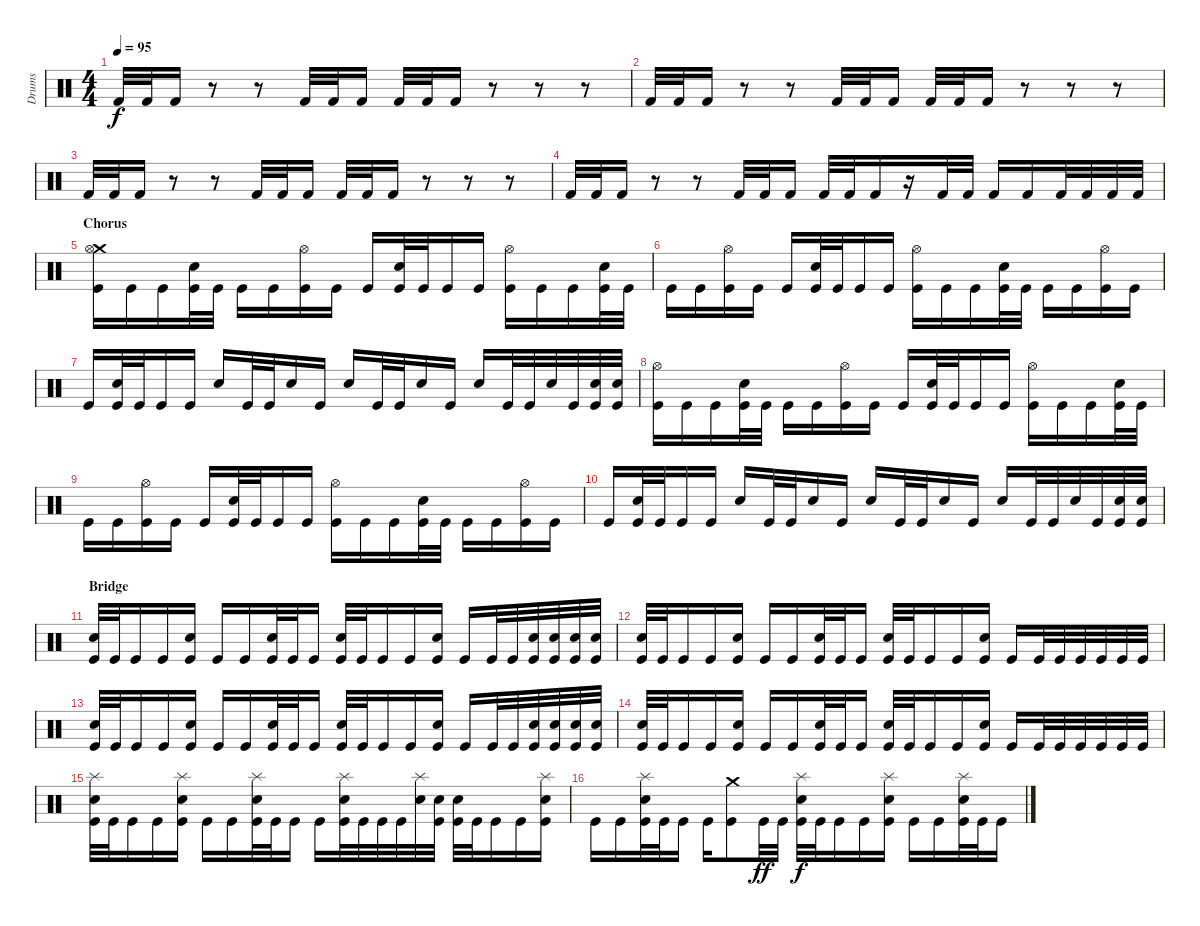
\track ("Drums" "Drums") {instrument percussion}
\staff {score}
\articulation defaults
\ts (4 4)
\tempo 95
\clef neutral
\ks c "Kick (hit) 2".32{dy f} "Kick (hit) 2".32 "Kick (hit) 2".16
r.8 r.8 "Kick (hit) 2".32 "Kick (hit) 2".32 "Kick (hit) 2".16 "Kick (hit) 2".32 "Kick (hit) 2".32 "Kick (hit) 2".16 r.8 r.8 r.8 |
"Kick (hit) 2".32 "Kick (hit) 2".32 "Kick (hit) 2".16 r.8 r.8 "Kick (hit) 2".32 "Kick (hit) 2".32 "Kick (hit) 2".16 "Kick (hit) 2".32 "Kick (hit) 2".32 "Kick (hit) 2".16 r.8 r.8 r.8 |
"Kick (hit) 2".32 "Kick (hit) 2".32 "Kick (hit) 2".16 r.8 r.8 "Kick (hit) 2".32 "Kick (hit) 2".32 "Kick (hit) 2".16 "Kick (hit) 2".32 "Kick (hit) 2".32 "Kick (hit) 2".16 r.8 r.8 r.8 |
"Kick (hit) 2".32 "Kick (hit) 2".32 "Kick (hit) 2".16 r.8 r.8 "Kick (hit) 2".32 "Kick (hit) 2".32 "Kick (hit) 2".16 "Kick (hit) 2".32 "Kick (hit) 2".32 "Kick (hit) 2".16 r.16 "Kick (hit) 2".32 "Kick (hit) 2".32 "Kick (hit) 2".16 "Kick (hit) 2".16 "Kick (hit) 2".32 "Kick (hit) 2".32 "Kick (hit) 2".32 "Kick (hit) 2".32 |
\section ("" "Chorus")
("Crash medium (hit)" "Hi-Hat (open)" "Kick (hit)").16 "Kick (hit)".16 "Kick (hit)".16 ("Electric Snare (hit)" "Kick (hit)").32 "Kick (hit)".32 "Kick (hit)".16 "Kick (hit)".16 ("Hi-Hat (open)" "Kick (hit)").16 "Kick (hit)".16 "Kick (hit)".16 ("Electric Snare (hit)" "Kick (hit)").32 "Kick (hit)".32 "Kick (hit)".16 "Kick (hit)".16 ("Hi-Hat (open)" "Kick (hit)").16 "Kick (hit)".16 "Kick (hit)".16 ("Electric Snare (hit)" "Kick (hit)").32 "Kick (hit)".32 |
"Kick (hit)".16 "Kick (hit)".16 ("Hi-Hat (open)" "Kick (hit)").16 "Kick (hit)".16 "Kick (hit)".16 ("Electric Snare (hit)" "Kick (hit)").32 "Kick (hit)".32 "Kick (hit)".16 "Kick (hit)".16 ("Hi-Hat (open)" "Kick (hit)").16 "Kick (hit)".16 "Kick (hit)".16 ("Electric Snare (hit)" "Kick (hit)").32 "Kick (hit)".32 "Kick (hit)".16 "Kick (hit)".16 ("Hi-Hat (open)" "Kick (hit)").16 "Kick (hit)".16 |
"Kick (hit)".16 ("Electric Snare (hit)" "Kick (hit)").32 "Kick (hit)".32 "Kick (hit)".16 "Kick (hit)".16 "Electric Snare (hit)".16 "Kick (hit)".32 "Kick (hit)".32 "Electric Snare (hit)".16 "Kick (hit)".16 "Electric Snare (hit)".16 "Kick (hit)".32 "Kick (hit)".32 "Electric Snare (hit)".16 "Kick (hit)".16 "Electric Snare (hit)".16 "Kick (hit)".32 "Kick (hit)".32 "Electric Snare (hit)".32 "Kick (hit)".32 ("Electric Snare (hit)" "Kick (hit)").32 ("Electric Snare (hit)" "Kick (hit)").32 |
("Hi-Hat (open)" "Kick (hit)").16 "Kick (hit)".16 "Kick (hit)".16 ("Electric Snare (hit)" "Kick (hit)").32 "Kick (hit)".32 "Kick (hit)".16 "Kick (hit)".16 ("Hi-Hat (open)" "Kick (hit)").16 "Kick (hit)".16 "Kick (hit)".16 ("Electric Snare (hit)" "Kick (hit)").32 "Kick (hit)".32 "Kick (hit)".16 "Kick (hit)".16 ("Hi-Hat (open)" "Kick (hit)").16 "Kick (hit)".16 "Kick (hit)".16 ("Electric Snare (hit)" "Kick (hit)").32 "Kick (hit)".32 |
"Kick (hit)".16 "Kick (hit)".16 ("Hi-Hat (open)" "Kick (hit)").16 "Kick (hit)".16 "Kick (hit)".16 ("Electric Snare (hit)" "Kick (hit)").32 "Kick (hit)".32 "Kick (hit)".16 "Kick (hit)".16 ("Hi-Hat (open)" "Kick (hit)").16 "Kick (hit)".16 "Kick (hit)".16 ("Electric Snare (hit)" "Kick (hit)").32 "Kick (hit)".32 "Kick (hit)".16 "Kick (hit)".16 ("Hi-Hat (open)" "Kick (hit)").16 "Kick (hit)".16 |
"Kick (hit)".16 ("Electric Snare (hit)" "Kick (hit)").32 "Kick (hit)".32 "Kick (hit)".16 "Kick (hit)".16 "Electric Snare (hit)".16 "Kick (hit)".32 "Kick (hit)".32 "Electric Snare (hit)".16 "Kick (hit)".16 "Electric Snare (hit)".16 "Kick (hit)".32 "Kick (hit)".32 "Electric Snare (hit)".16 "Kick (hit)".16 "Electric Snare (hit)".16 "Kick (hit)".32 "Kick (hit)".32 "Electric Snare (hit)".32 "Kick (hit)".32 ("Electric Snare (hit)" "Kick (hit)").32 ("Electric Snare (hit)" "Kick (hit)").32 |
\section ("" "Bridge")
("Electric Snare (hit)" "Kick (hit)").32 "Kick (hit)".32 "Kick (hit)".16 "Kick (hit)".16 ("Electric Snare (hit)" "Kick (hit)").16 "Kick (hit)".16 "Kick (hit)".16 ("Electric Snare (hit)" "Kick (hit)").32 "Kick (hit)".32 "Kick (hit)".16 ("Electric Snare (hit)" "Kick (hit)").32 "Kick (hit)".32 "Kick (hit)".16 "Kick (hit)".16 ("Electric Snare (hit)" "Kick (hit)").16 "Kick (hit)".16 "Kick (hit)".32 "Kick (hit)".32 ("Electric Snare (hit)" "Kick (hit)").32 ("Electric Snare (hit)" "Kick (hit)").32 ("Electric Snare (hit)" "Kick (hit)").32 ("Electric Snare (hit)" "Kick (hit)").32 |
("Electric Snare (hit)" "Kick (hit)").32 "Kick (hit)".32 "Kick (hit)".16 "Kick (hit)".16 ("Electric Snare (hit)" "Kick (hit)").16 "Kick (hit)".16 "Kick (hit)".16 ("Electric Snare (hit)" "Kick (hit)").32 "Kick (hit)".32 "Kick (hit)".16 ("Electric Snare (hit)" "Kick (hit)").32 "Kick (hit)".32 "Kick (hit)".16 "Kick (hit)".16 ("Electric Snare (hit)" "Kick (hit)").16 "Kick (hit)".16 "Kick (hit)".32 "Kick (hit)".32 "Kick (hit)".32 "Kick (hit)".32 "Kick (hit)".32 "Kick (hit)".32 |
("Electric Snare (hit)" "Kick (hit)").32 "Kick (hit)".32 "Kick (hit)".16 "Kick (hit)".16 ("Electric Snare (hit)" "Kick (hit)").16 "Kick (hit)".16 "Kick (hit)".16 ("Electric Snare (hit)" "Kick (hit)").32 "Kick (hit)".32 "Kick (hit)".16 ("Electric Snare (hit)" "Kick (hit)").32 "Kick (hit)".32 "Kick (hit)".16 "Kick (hit)".16 ("Electric Snare (hit)" "Kick (hit)").16 "Kick (hit)".16 "Kick (hit)".32 "Kick (hit)".32 ("Electric Snare (hit)" "Kick (hit)").32 ("Electric Snare (hit)" "Kick (hit)").32 ("Electric Snare (hit)" "Kick (hit)").32 ("Electric Snare (hit)" "Kick (hit)").32 |
("Electric Snare (hit)" "Kick (hit)").32 "Kick (hit)".32 "Kick (hit)".16 "Kick (hit)".16 ("Electric Snare (hit)" "Kick (hit)").16 "Kick (hit)".16 "Kick (hit)".16 ("Electric Snare (hit)" "Kick (hit)").32 "Kick (hit)".32 "Kick (hit)".16 ("Electric Snare (hit)" "Kick (hit)").32 "Kick (hit)".32 "Kick (hit)".16 "Kick (hit)".16 ("Electric Snare (hit)" "Kick (hit)").16 "Kick (hit)".16 "Kick (hit)".32 "Kick (hit)".32 "Kick (hit)".32 "Kick (hit)".32 "Kick (hit)".32 "Kick (hit)".32 |
("Splash (hit)" "Electric Snare (hit)" "Kick (hit)").32 "Kick (hit)".32 "Kick (hit)".16 "Kick (hit)".16 ("Splash (hit)" "Electric Snare (hit)" "Kick (hit)").16 "Kick (hit)".16 "Kick (hit)".16 ("Splash (hit)" "Electric Snare (hit)" "Kick (hit)").32 "Kick (hit)".32 "Kick (hit)".16 "Kick (hit)".16 ("Splash (hit)" "Electric Snare (hit)" "Kick (hit)").32 "Kick (hit)".32 "Kick (hit)".32 "Kick (hit)".32 ("Splash (hit)" "Electric Snare (hit)").32 ("Electric Snare (hit)" "Kick (hit)").32 ("Electric Snare (hit)" "Kick (hit)").32 "Kick (hit)".32 "Kick (hit)".16 "Kick (hit)".16 ("Splash (hit)" "Electric Snare (hit)" "Kick (hit)").16 |
"Kick (hit)".16 "Kick (hit)".16 ("Splash (hit)" "Electric Snare (hit)" "Kick (hit)").32 "Kick (hit)".32 "Kick (hit)".16 "Kick (hit)".16 ("Crash medium (hit)" "Kick (hit)").8 "Kick (hit)".32{dy ff} "Kick (hit)".32 ("Splash (hit)" "Electric Snare (hit)" "Kick (hit)").32{dy f} "Kick (hit)".32 "Kick (hit)".16 "Kick (hit)".16 ("Splash (hit)" "Electric Snare (hit)" "Kick (hit)").16 "Kick (hit)".16 "Kick (hit)".16 ("Splash (hit)" "Electric Snare (hit)" "Kick (hit)").32 "Kick (hit)".32 "Kick (hit)".16
